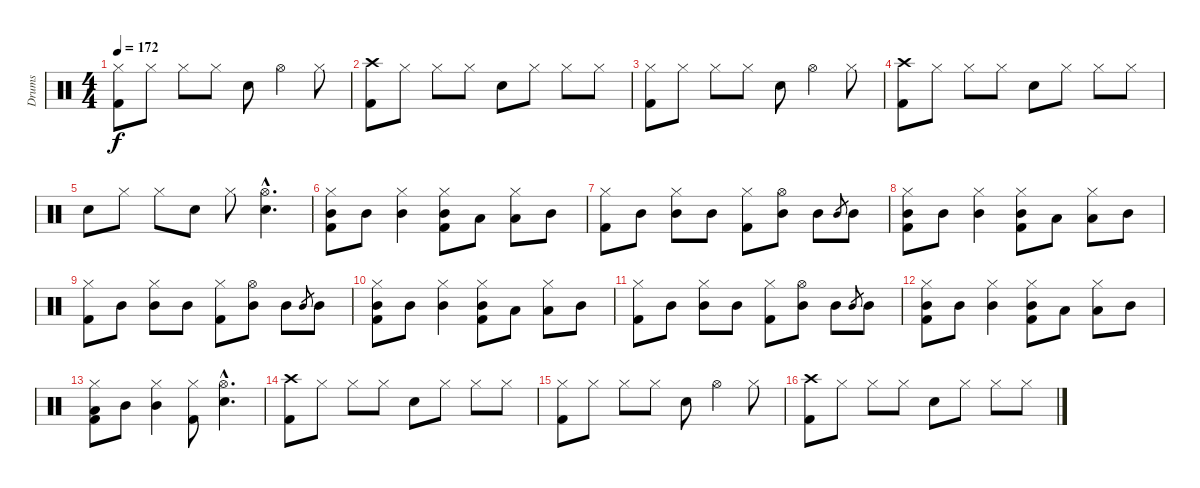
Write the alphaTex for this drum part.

\track ("Drums" "Drums") {instrument percussion}
\staff {score}
\articulation defaults
\ts (4 4)
\tempo 172
\clef neutral
\ks c
("Hi-Hat (closed)" "Kick (hit) 2").8{dy f} "Hi-Hat (closed)".8 "Hi-Hat (closed)".8 "Hi-Hat (closed)".8 "Electric Snare (hit)".8 "Hi-Hat (open)".4 "Hi-Hat (closed)".8 |
("Crash high (hit)" "Kick (hit) 2").8 "Hi-Hat (closed)".8 "Hi-Hat (closed)".8 "Hi-Hat (closed)".8 "Electric Snare (hit)".8 "Hi-Hat (closed)".8 "Hi-Hat (closed)".8 "Hi-Hat (closed)".8 |
("Hi-Hat (closed)" "Kick (hit) 2").8 "Hi-Hat (closed)".8 "Hi-Hat (closed)".8 "Hi-Hat (closed)".8 "Electric Snare (hit)".8 "Hi-Hat (open)".4 "Hi-Hat (closed)".8 |
("Crash high (hit)" "Kick (hit) 2").8 "Hi-Hat (closed)".8 "Hi-Hat (closed)".8 "Hi-Hat (closed)".8 "Electric Snare (hit)".8 "Hi-Hat (closed)".8 "Hi-Hat (closed)".8 "Hi-Hat (closed)".8 |
"Electric Snare (hit)".8 "Hi-Hat (closed)".8 "Hi-Hat (closed)".8 "Electric Snare (hit)".8 "Hi-Hat (closed)".8 ("Hi-Hat (open)"{hac} "Electric Snare (hit)"{hac}).4{d} |
("Hi-Hat (closed)" "Mid Tom (hit)" "Kick (hit) 2").8 "Mid Tom (hit)".8 ("Hi-Hat (closed)" "Mid Tom (hit)").4 ("Hi-Hat (closed)" "Mid Tom (hit)" "Kick (hit) 2").8 "Low Tom (hit)".8 ("Hi-Hat (closed)" "Low Tom (hit)").8 "Mid Tom (hit)".8 |
("Hi-Hat (closed)" "Kick (hit) 2").8 "Mid Tom (hit)".8 ("Hi-Hat (closed)" "Mid Tom (hit)").8 "Mid Tom (hit)".8 ("Hi-Hat (closed)" "Kick (hit) 2").8 ("Hi-Hat (open)" "Mid Tom (hit)").8 "Mid Tom (hit)".8 "Mid Tom (hit)".8{gr} "Mid Tom (hit)".8 |
("Hi-Hat (closed)" "Mid Tom (hit)" "Kick (hit) 2").8 "Mid Tom (hit)".8 ("Hi-Hat (closed)" "Mid Tom (hit)").4 ("Hi-Hat (closed)" "Mid Tom (hit)" "Kick (hit) 2").8 "Low Tom (hit)".8 ("Hi-Hat (closed)" "Low Tom (hit)").8 "Mid Tom (hit)".8 |
("Hi-Hat (closed)" "Kick (hit) 2").8 "Mid Tom (hit)".8 ("Hi-Hat (closed)" "Mid Tom (hit)").8 "Mid Tom (hit)".8 ("Hi-Hat (closed)" "Kick (hit) 2").8 ("Hi-Hat (open)" "Mid Tom (hit)").8 "Mid Tom (hit)".8 "Mid Tom (hit)".8{gr} "Mid Tom (hit)".8 |
("Hi-Hat (closed)" "Mid Tom (hit)" "Kick (hit) 2").8 "Mid Tom (hit)".8 ("Hi-Hat (closed)" "Mid Tom (hit)").4 ("Hi-Hat (closed)" "Mid Tom (hit)" "Kick (hit) 2").8 "Low Tom (hit)".8 ("Hi-Hat (closed)" "Low Tom (hit)").8 "Mid Tom (hit)".8 |
("Hi-Hat (closed)" "Kick (hit) 2").8 "Mid Tom (hit)".8 ("Hi-Hat (closed)" "Mid Tom (hit)").8 "Mid Tom (hit)".8 ("Hi-Hat (closed)" "Kick (hit) 2").8 ("Hi-Hat (open)" "Mid Tom (hit)").8 "Mid Tom (hit)".8 "Mid Tom (hit)".8{gr} "Mid Tom (hit)".8 |
("Hi-Hat (closed)" "Mid Tom (hit)" "Kick (hit) 2").8 "Mid Tom (hit)".8 ("Hi-Hat (closed)" "Mid Tom (hit)").4 ("Hi-Hat (closed)" "Mid Tom (hit)" "Kick (hit) 2").8 "Low Tom (hit)".8 ("Hi-Hat (closed)" "Low Tom (hit)").8 "Mid Tom (hit)".8 |
("Hi-Hat (closed)" "Low Tom (hit)" "Kick (hit) 2").8 "Mid Tom (hit)".8 ("Hi-Hat (closed)" "Mid Tom (hit)").4 ("Hi-Hat (closed)" "Kick (hit) 2").8 ("Hi-Hat (open)"{hac} "Electric Snare (hit)"{hac}).4{d} |
("Crash high (hit)" "Kick (hit) 2").8 "Hi-Hat (closed)".8 "Hi-Hat (closed)".8 "Hi-Hat (closed)".8 "Electric Snare (hit)".8 "Hi-Hat (closed)".8 "Hi-Hat (closed)".8 "Hi-Hat (closed)".8 |
("Hi-Hat (closed)" "Kick (hit) 2").8 "Hi-Hat (closed)".8 "Hi-Hat (closed)".8 "Hi-Hat (closed)".8 "Electric Snare (hit)".8 "Hi-Hat (open)".4 "Hi-Hat (closed)".8 |
("Crash high (hit)" "Kick (hit) 2").8 "Hi-Hat (closed)".8 "Hi-Hat (closed)".8 "Hi-Hat (closed)".8 "Electric Snare (hit)".8 "Hi-Hat (closed)".8 "Hi-Hat (closed)".8 "Hi-Hat (closed)".8
